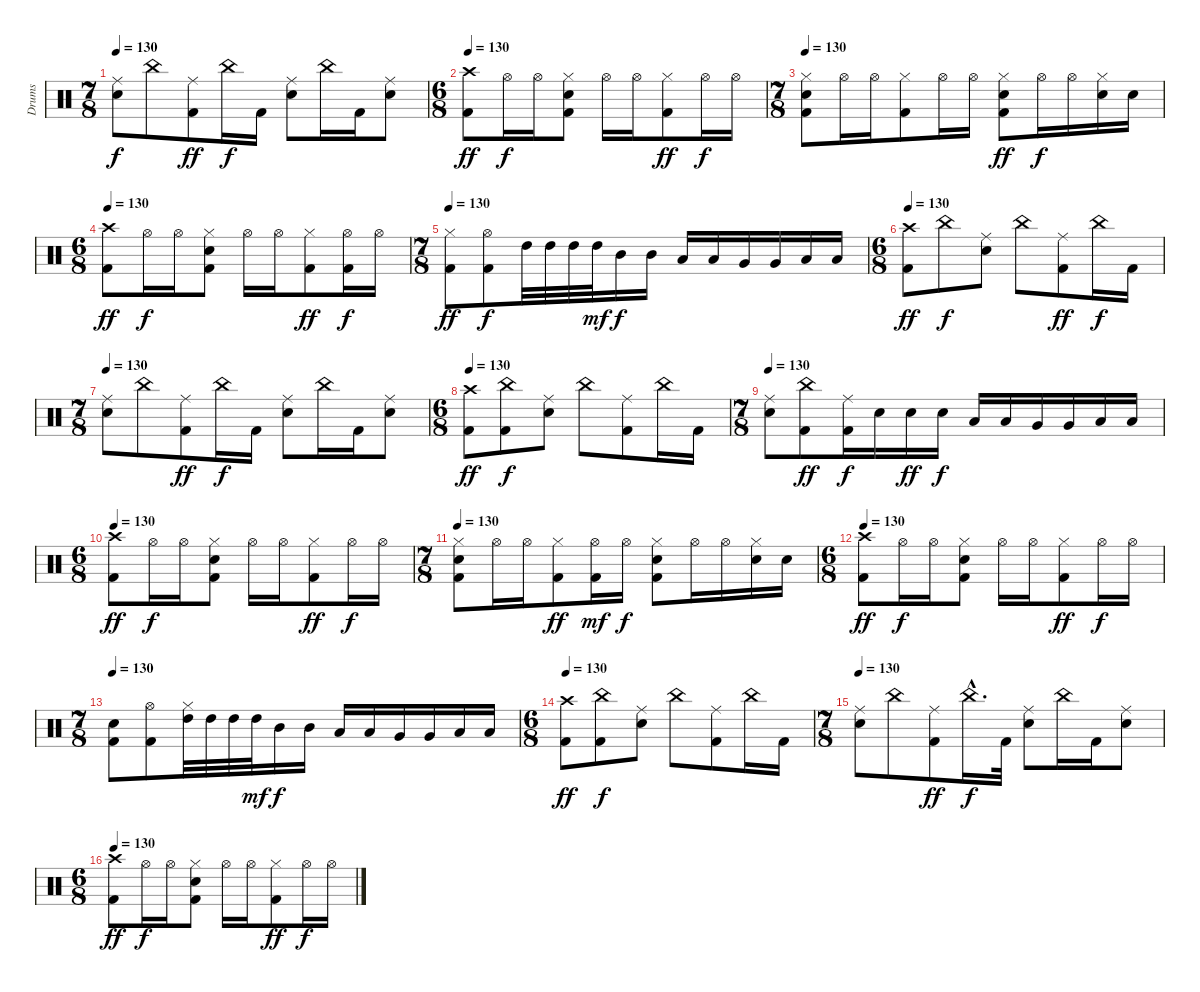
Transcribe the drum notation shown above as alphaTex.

\track ("Drums" "Drums") {instrument percussion}
\staff {score}
\articulation defaults
\ts (7 8)
\tempo 130
\clef neutral
\ks c
("Ride (middle)" "Electric Snare (hit)").8{dy f} "China (hit)".8 ("Kick (hit) 2" "Ride (middle)").8{dy ff} "China (hit)".16{dy f} "Kick (hit) 2".16 ("Electric Snare (hit)" "Ride (middle)").8 "China (hit)".16 "Kick (hit) 2".16 ("Electric Snare (hit)" "Ride (middle)").8 |
\ts (6 8)
\tempo 130
("Crash high (hit)" "Kick (hit) 2").8{dy ff} "Hi-Hat (open)".16{dy f} "Hi-Hat (open)".16 ("Hi-Hat (closed)" "Electric Snare (hit)" "Kick (hit) 2").8 "Hi-Hat (open)".16 "Hi-Hat (open)".16 ("Hi-Hat (closed)" "Kick (hit) 2").8{dy ff} "Hi-Hat (open)".16{dy f} "Hi-Hat (open)".16 |
\ts (7 8)
\tempo 130
("Hi-Hat (closed)" "Kick (hit) 2" "Electric Snare (hit)").8 "Hi-Hat (open)".16 "Hi-Hat (open)".16 ("Hi-Hat (closed)" "Kick (hit) 2").8 "Hi-Hat (open)".16 "Hi-Hat (open)".16 ("Hi-Hat (closed)" "Electric Snare (hit)" "Kick (hit) 2").8{dy ff} "Hi-Hat (open)".16{dy f} "Hi-Hat (open)".16 ("Hi-Hat (closed)" "Electric Snare (hit)").16 "Electric Snare (hit)".16 |
\ts (6 8)
\tempo 130
("Crash high (hit)" "Kick (hit) 2").8{dy ff} "Hi-Hat (open)".16{dy f} "Hi-Hat (open)".16 ("Electric Snare (hit)" "Kick (hit) 2" "Hi-Hat (closed)").8 "Hi-Hat (open)".16 "Hi-Hat (open)".16 ("Kick (hit) 2" "Hi-Hat (closed)").8{dy ff} ("Kick (hit) 2" "Hi-Hat (open)").16{dy f} "Hi-Hat (open)".16 |
\ts (7 8)
\tempo 130
("Kick (hit) 2" "Hi-Hat (closed)").8{dy ff} ("Kick (hit) 2" "Hi-Hat (open)").8{dy f} "High Tom (hit)".32 "High Tom (hit)".32 "High Tom (hit)".32 "High Tom (hit)".32{dy mf} "Mid Tom (hit)".16{dy f} "Mid Tom (hit)".16 "Low Tom (hit)".16 "Low Tom (hit)".16 "Very Low Tom (hit)".16 "Very Low Tom (hit)".16 "Low Floor Tom (hit)".16 "Low Floor Tom (hit)".16 |
\ts (6 8)
\tempo 130
("Crash high (hit)" "Kick (hit) 2").8{dy ff} "China (hit)".8{dy f} ("Electric Snare (hit)" "Ride (middle)").8 "China (hit)".8 ("Ride (middle)" "Kick (hit) 2").8{dy ff} "China (hit)".16{dy f} "Kick (hit) 2".16 |
\ts (7 8)
\tempo 130
("Ride (middle)" "Electric Snare (hit)").8 "China (hit)".8 ("Kick (hit) 2" "Ride (middle)").8{dy ff} "China (hit)".16{dy f} "Kick (hit) 2".16 ("Electric Snare (hit)" "Ride (middle)").8 "China (hit)".16 "Kick (hit) 2".16 ("Electric Snare (hit)" "Ride (middle)").8 |
\ts (6 8)
\tempo 130
("Crash high (hit)" "Kick (hit) 2").8{dy ff} ("Kick (hit) 2" "China (hit)").8{dy f} ("Ride (middle)" "Electric Snare (hit)").8 "China (hit)".8 ("Kick (hit) 2" "Ride (middle)").8 "China (hit)".16 "Kick (hit) 2".16 |
\ts (7 8)
\tempo 130
("Ride (middle)" "Electric Snare (hit)").8 ("Kick (hit) 2" "China (hit)").8{dy ff} ("Kick (hit) 2" "Ride (middle)").16{dy f} "Electric Snare (hit)".16 "Electric Snare (hit)".16{dy ff} "Electric Snare (hit)".16{dy f} "Low Tom (hit)".16 "Low Tom (hit)".16 "Very Low Tom (hit)".16 "Very Low Tom (hit)".16 "Low Floor Tom (hit)".16 "Low Floor Tom (hit)".16 |
\ts (6 8)
\tempo 130
("Crash high (hit)" "Kick (hit) 2").8{dy ff} "Hi-Hat (open)".16{dy f} "Hi-Hat (open)".16 ("Kick (hit) 2" "Electric Snare (hit)" "Hi-Hat (closed)").8 "Hi-Hat (open)".16 "Hi-Hat (open)".16 ("Kick (hit) 2" "Hi-Hat (closed)").8{dy ff} "Hi-Hat (open)".16{dy f} "Hi-Hat (open)".16 |
\ts (7 8)
\tempo 130
("Kick (hit) 2" "Electric Snare (hit)" "Hi-Hat (closed)").8 "Hi-Hat (open)".16 "Hi-Hat (open)".16 ("Kick (hit) 2" "Hi-Hat (closed)").8{dy ff} ("Kick (hit) 2" "Hi-Hat (open)").16{dy mf} "Hi-Hat (open)".16{dy f} ("Kick (hit) 2" "Electric Snare (hit)" "Hi-Hat (closed)").8 "Hi-Hat (open)".16 "Hi-Hat (open)".16 ("Electric Snare (hit)" "Hi-Hat (closed)").16 "Electric Snare (hit)".16 |
\ts (6 8)
\tempo 130
("Crash high (hit)" "Kick (hit) 2").8{dy ff} "Hi-Hat (open)".16{dy f} "Hi-Hat (open)".16 ("Kick (hit) 2" "Electric Snare (hit)" "Hi-Hat (closed)").8 "Hi-Hat (open)".16 "Hi-Hat (open)".16 ("Kick (hit) 2" "Hi-Hat (closed)").8{dy ff} "Hi-Hat (open)".16{dy f} "Hi-Hat (open)".16 |
\ts (7 8)
\tempo 130
("Kick (hit) 2" "Electric Snare (hit)").8 ("Hi-Hat (open)" "Kick (hit) 2").8 ("High Tom (hit)" "Hi-Hat (closed)").32 "High Tom (hit)".32 "High Tom (hit)".32 "High Tom (hit)".32{dy mf} "Mid Tom (hit)".16{dy f} "Mid Tom (hit)".16 "Low Tom (hit)".16 "Low Tom (hit)".16 "Very Low Tom (hit)".16 "Very Low Tom (hit)".16 "Low Floor Tom (hit)".16 "Low Floor Tom (hit)".16 |
\ts (6 8)
\tempo 130
("Crash high (hit)" "Kick (hit) 2").8{dy ff} ("China (hit)" "Kick (hit) 2").8{dy f} ("Ride (middle)" "Electric Snare (hit)").8 "China (hit)".8 ("Kick (hit) 2" "Ride (middle)").8 "China (hit)".16 "Kick (hit) 2".16 |
\ts (7 8)
\tempo 130
("Ride (middle)" "Electric Snare (hit)").8 "China (hit)".8 ("Kick (hit) 2" "Ride (middle)").8{dy ff} "China (hit)"{hac}.16{d dy f} "Kick (hit) 2".32 ("Electric Snare (hit)" "Ride (middle)").8 "China (hit)".16 "Kick (hit) 2".16 ("Electric Snare (hit)" "Ride (middle)").8 |
\ts (6 8)
\tempo 130
("Crash high (hit)" "Kick (hit) 2").8{dy ff} "Hi-Hat (open)".16{dy f} "Hi-Hat (open)".16 ("Kick (hit) 2" "Electric Snare (hit)" "Hi-Hat (closed)").8 "Hi-Hat (open)".16 "Hi-Hat (open)".16 ("Kick (hit) 2" "Hi-Hat (closed)").8{dy ff} "Hi-Hat (open)".16{dy f} "Hi-Hat (open)".16
